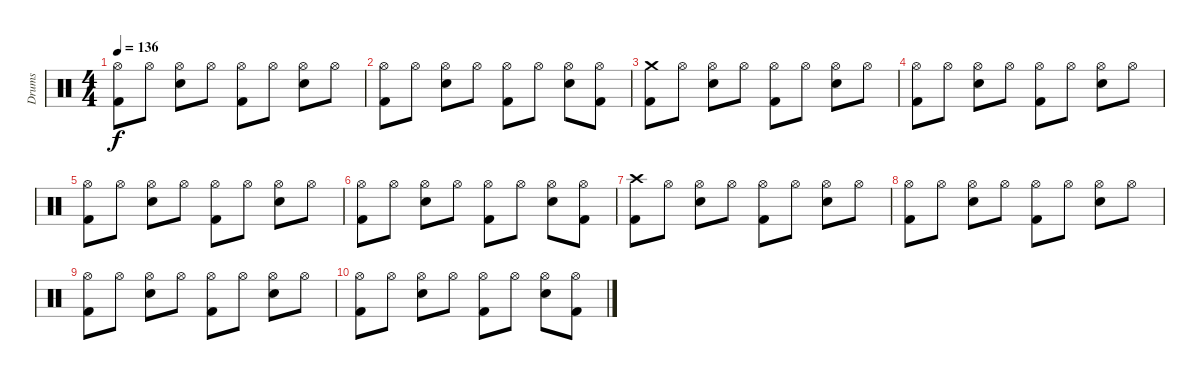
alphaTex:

\track ("Drums" "Drums") {instrument percussion}
\staff {score}
\articulation defaults
\ts (4 4)
\tempo 136
\clef neutral
\ks c
("Hi-Hat (open)" "Kick (hit) 2").8{dy f} "Hi-Hat (open)".8 ("Hi-Hat (open)" "Electric Snare (hit)").8 "Hi-Hat (open)".8 ("Hi-Hat (open)" "Kick (hit) 2").8 "Hi-Hat (open)".8 ("Hi-Hat (open)" "Electric Snare (hit)").8 "Hi-Hat (open)".8 |
("Hi-Hat (open)" "Kick (hit) 2").8 "Hi-Hat (open)".8 ("Hi-Hat (open)" "Electric Snare (hit)").8 "Hi-Hat (open)".8 ("Hi-Hat (open)" "Kick (hit) 2").8 "Hi-Hat (open)".8 ("Hi-Hat (open)" "Electric Snare (hit)").8 ("Hi-Hat (open)" "Kick (hit) 2").8 |
("Crash medium (hit)" "Kick (hit) 2").8 "Hi-Hat (open)".8 ("Hi-Hat (open)" "Electric Snare (hit)").8 "Hi-Hat (open)".8 ("Hi-Hat (open)" "Kick (hit) 2").8 "Hi-Hat (open)".8 ("Hi-Hat (open)" "Electric Snare (hit)").8 "Hi-Hat (open)".8 |
("Hi-Hat (open)" "Kick (hit) 2").8 "Hi-Hat (open)".8 ("Hi-Hat (open)" "Electric Snare (hit)").8 "Hi-Hat (open)".8 ("Hi-Hat (open)" "Kick (hit) 2").8 "Hi-Hat (open)".8 ("Hi-Hat (open)" "Electric Snare (hit)").8 "Hi-Hat (open)".8 |
("Hi-Hat (open)" "Kick (hit) 2").8 "Hi-Hat (open)".8 ("Hi-Hat (open)" "Electric Snare (hit)").8 "Hi-Hat (open)".8 ("Hi-Hat (open)" "Kick (hit) 2").8 "Hi-Hat (open)".8 ("Hi-Hat (open)" "Electric Snare (hit)").8 "Hi-Hat (open)".8 |
("Hi-Hat (open)" "Kick (hit) 2").8 "Hi-Hat (open)".8 ("Hi-Hat (open)" "Electric Snare (hit)").8 "Hi-Hat (open)".8 ("Hi-Hat (open)" "Kick (hit) 2").8 "Hi-Hat (open)".8 ("Hi-Hat (open)" "Electric Snare (hit)").8 ("Hi-Hat (open)" "Kick (hit) 2").8 |
("Crash high (hit)" "Kick (hit) 2").8 "Hi-Hat (open)".8 ("Hi-Hat (open)" "Electric Snare (hit)").8 "Hi-Hat (open)".8 ("Hi-Hat (open)" "Kick (hit) 2").8 "Hi-Hat (open)".8 ("Hi-Hat (open)" "Electric Snare (hit)").8 "Hi-Hat (open)".8 |
("Hi-Hat (open)" "Kick (hit) 2").8 "Hi-Hat (open)".8 ("Hi-Hat (open)" "Electric Snare (hit)").8 "Hi-Hat (open)".8 ("Hi-Hat (open)" "Kick (hit) 2").8 "Hi-Hat (open)".8 ("Hi-Hat (open)" "Electric Snare (hit)").8 "Hi-Hat (open)".8 |
("Hi-Hat (open)" "Kick (hit) 2").8 "Hi-Hat (open)".8 ("Hi-Hat (open)" "Electric Snare (hit)").8 "Hi-Hat (open)".8 ("Hi-Hat (open)" "Kick (hit) 2").8 "Hi-Hat (open)".8 ("Hi-Hat (open)" "Electric Snare (hit)").8 "Hi-Hat (open)".8 |
("Hi-Hat (open)" "Kick (hit) 2").8 "Hi-Hat (open)".8 ("Hi-Hat (open)" "Electric Snare (hit)").8 "Hi-Hat (open)".8 ("Hi-Hat (open)" "Kick (hit) 2").8 "Hi-Hat (open)".8 ("Hi-Hat (open)" "Electric Snare (hit)").8 ("Hi-Hat (open)" "Kick (hit) 2").8
